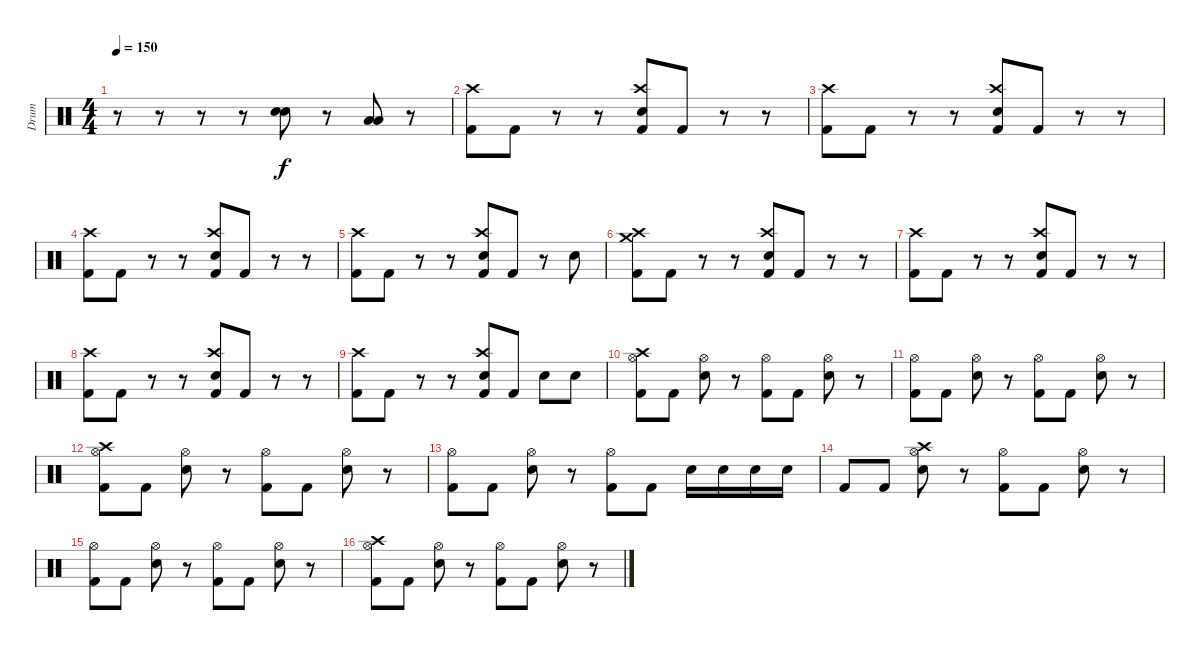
\track ("Drum" "Drum") {instrument percussion}
\staff {score}
\articulation defaults
\ts (4 4)
\tempo 150
\clef neutral
\ks c
r.8{dy f} r.8 r.8 r.8 ("Electric Snare (hit)" "Electric Snare (hit)").8 r.8 ("Low Floor Tom (hit)" "Low Floor Tom (hit)").8 r.8 |
("Crash high (hit)" "Kick (hit) 2").8 "Kick (hit) 2".8 r.8 r.8 ("Crash high (hit)" "Kick (hit) 2" "Electric Snare (hit)").8 "Kick (hit) 2".8 r.8 r.8 |
("Crash high (hit)" "Kick (hit) 2").8 "Kick (hit) 2".8 r.8 r.8 ("Crash high (hit)" "Kick (hit) 2" "Electric Snare (hit)").8 "Kick (hit) 2".8 r.8 r.8 |
("Crash high (hit)" "Kick (hit) 2").8 "Kick (hit) 2".8 r.8 r.8 ("Crash high (hit)" "Kick (hit) 2" "Electric Snare (hit)").8 "Kick (hit) 2".8 r.8 r.8 |
("Crash high (hit)" "Kick (hit) 2").8 "Kick (hit) 2".8 r.8 r.8 ("Crash high (hit)" "Kick (hit) 2" "Electric Snare (hit)").8 "Kick (hit) 2".8 r.8 "Electric Snare (hit)".8 |
("Crash high (hit)" "Kick (hit) 2" "Crash medium (hit)").8 "Kick (hit) 2".8 r.8 r.8 ("Crash high (hit)" "Kick (hit) 2" "Electric Snare (hit)").8 "Kick (hit) 2".8 r.8 r.8 |
("Crash high (hit)" "Kick (hit) 2").8 "Kick (hit) 2".8 r.8 r.8 ("Crash high (hit)" "Kick (hit) 2" "Electric Snare (hit)").8 "Kick (hit) 2".8 r.8 r.8 |
("Crash high (hit)" "Kick (hit) 2").8 "Kick (hit) 2".8 r.8 r.8 ("Crash high (hit)" "Kick (hit) 2" "Electric Snare (hit)").8 "Kick (hit) 2".8 r.8 r.8 |
("Crash high (hit)" "Kick (hit) 2").8 "Kick (hit) 2".8 r.8 r.8 ("Crash high (hit)" "Kick (hit) 2" "Electric Snare (hit)").8 "Kick (hit) 2".8 "Electric Snare (hit)".8 "Electric Snare (hit)".8 |
("Hi-Hat (open)" "Kick (hit) 2" "Crash high (hit)").8 "Kick (hit) 2".8 ("Hi-Hat (open)" "Electric Snare (hit)").8 r.8 ("Hi-Hat (open)" "Kick (hit) 2").8 "Kick (hit) 2".8 ("Hi-Hat (open)" "Electric Snare (hit)").8 r.8 |
("Hi-Hat (open)" "Kick (hit) 2").8 "Kick (hit) 2".8 ("Hi-Hat (open)" "Electric Snare (hit)").8 r.8 ("Hi-Hat (open)" "Kick (hit) 2").8 "Kick (hit) 2".8 ("Hi-Hat (open)" "Electric Snare (hit)").8 r.8 |
("Hi-Hat (open)" "Kick (hit) 2" "Crash high (hit)").8 "Kick (hit) 2".8 ("Hi-Hat (open)" "Electric Snare (hit)").8 r.8 ("Hi-Hat (open)" "Kick (hit) 2").8 "Kick (hit) 2".8 ("Hi-Hat (open)" "Electric Snare (hit)").8 r.8 |
("Hi-Hat (open)" "Kick (hit) 2").8 "Kick (hit) 2".8 ("Hi-Hat (open)" "Electric Snare (hit)").8 r.8 ("Hi-Hat (open)" "Kick (hit) 2").8 "Kick (hit) 2".8 "Electric Snare (hit)".16 "Electric Snare (hit)".16 "Electric Snare (hit)".16 "Electric Snare (hit)".16 |
"Kick (hit) 2".8 "Kick (hit) 2".8 ("Hi-Hat (open)" "Electric Snare (hit)" "Crash high (hit)").8 r.8 ("Hi-Hat (open)" "Kick (hit) 2").8 "Kick (hit) 2".8 ("Hi-Hat (open)" "Electric Snare (hit)").8 r.8 |
("Hi-Hat (open)" "Kick (hit) 2").8 "Kick (hit) 2".8 ("Hi-Hat (open)" "Electric Snare (hit)").8 r.8 ("Hi-Hat (open)" "Kick (hit) 2").8 "Kick (hit) 2".8 ("Hi-Hat (open)" "Electric Snare (hit)").8 r.8 |
("Hi-Hat (open)" "Kick (hit) 2" "Crash high (hit)").8 "Kick (hit) 2".8 ("Hi-Hat (open)" "Electric Snare (hit)").8 r.8 ("Hi-Hat (open)" "Kick (hit) 2").8 "Kick (hit) 2".8 ("Hi-Hat (open)" "Electric Snare (hit)").8 r.8
